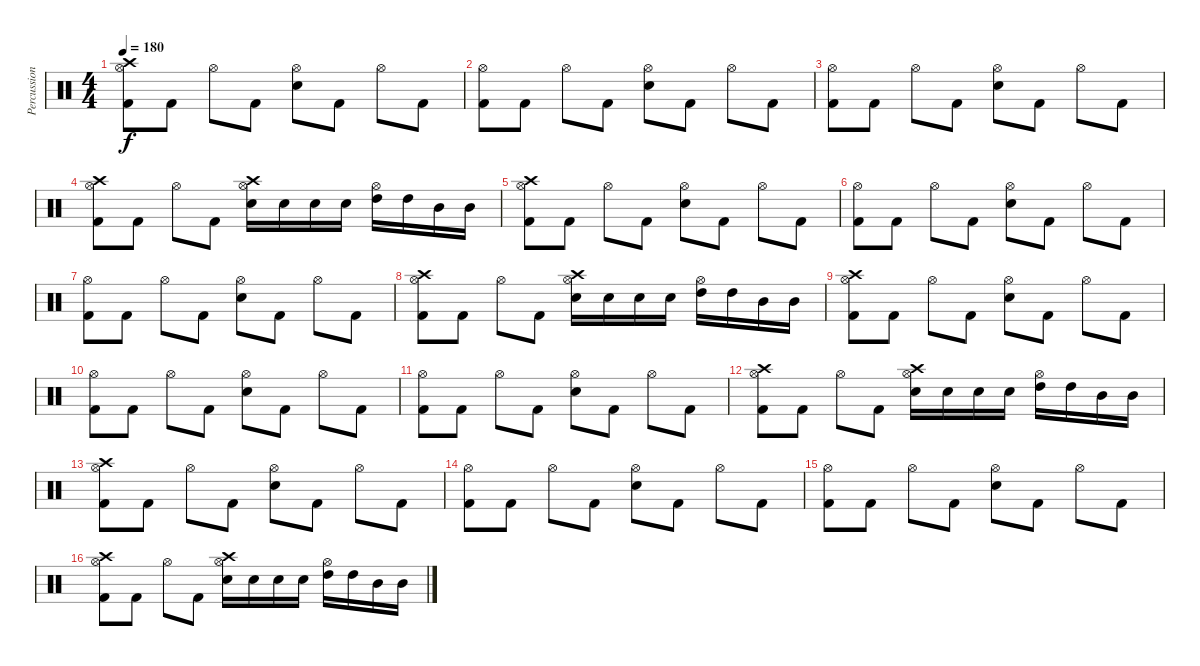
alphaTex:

\track ("Percussions" "Percussion") {instrument percussion}
\staff {score}
\articulation defaults
\ts (4 4)
\tempo 180
\clef neutral
\ks c
("Crash high (hit)" "Hi-Hat (open)" "Kick (hit) 2").8{dy f} "Kick (hit) 2".8 "Hi-Hat (open)".8 "Kick (hit) 2".8 ("Hi-Hat (open)" "Electric Snare (hit)").8 "Kick (hit) 2".8 "Hi-Hat (open)".8 "Kick (hit) 2".8 |
("Hi-Hat (open)" "Kick (hit) 2").8 "Kick (hit) 2".8 "Hi-Hat (open)".8 "Kick (hit) 2".8 ("Hi-Hat (open)" "Electric Snare (hit)").8 "Kick (hit) 2".8 "Hi-Hat (open)".8 "Kick (hit) 2".8 |
("Hi-Hat (open)" "Kick (hit) 2").8 "Kick (hit) 2".8 "Hi-Hat (open)".8 "Kick (hit) 2".8 ("Hi-Hat (open)" "Electric Snare (hit)").8 "Kick (hit) 2".8 "Hi-Hat (open)".8 "Kick (hit) 2".8 |
("Crash high (hit)" "Hi-Hat (open)" "Kick (hit) 2").8 "Kick (hit) 2".8 "Hi-Hat (open)".8 "Kick (hit) 2".8 ("Crash high (hit)" "Hi-Hat (open)" "Electric Snare (hit)").16 "Electric Snare (hit)".16 "Electric Snare (hit)".16 "Electric Snare (hit)".16 ("Hi-Hat (open)" "High Tom (hit)").16 "High Tom (hit)".16 "Mid Tom (hit)".16 "Mid Tom (hit)".16 |
("Crash high (hit)" "Hi-Hat (open)" "Kick (hit) 2").8 "Kick (hit) 2".8 "Hi-Hat (open)".8 "Kick (hit) 2".8 ("Hi-Hat (open)" "Electric Snare (hit)").8 "Kick (hit) 2".8 "Hi-Hat (open)".8 "Kick (hit) 2".8 |
("Hi-Hat (open)" "Kick (hit) 2").8 "Kick (hit) 2".8 "Hi-Hat (open)".8 "Kick (hit) 2".8 ("Hi-Hat (open)" "Electric Snare (hit)").8 "Kick (hit) 2".8 "Hi-Hat (open)".8 "Kick (hit) 2".8 |
("Hi-Hat (open)" "Kick (hit) 2").8 "Kick (hit) 2".8 "Hi-Hat (open)".8 "Kick (hit) 2".8 ("Hi-Hat (open)" "Electric Snare (hit)").8 "Kick (hit) 2".8 "Hi-Hat (open)".8 "Kick (hit) 2".8 |
("Crash high (hit)" "Hi-Hat (open)" "Kick (hit) 2").8 "Kick (hit) 2".8 "Hi-Hat (open)".8 "Kick (hit) 2".8 ("Crash high (hit)" "Hi-Hat (open)" "Electric Snare (hit)").16 "Electric Snare (hit)".16 "Electric Snare (hit)".16 "Electric Snare (hit)".16 ("Hi-Hat (open)" "High Tom (hit)").16 "High Tom (hit)".16 "Mid Tom (hit)".16 "Mid Tom (hit)".16 |
("Crash high (hit)" "Hi-Hat (open)" "Kick (hit) 2").8 "Kick (hit) 2".8 "Hi-Hat (open)".8 "Kick (hit) 2".8 ("Hi-Hat (open)" "Electric Snare (hit)").8 "Kick (hit) 2".8 "Hi-Hat (open)".8 "Kick (hit) 2".8 |
("Hi-Hat (open)" "Kick (hit) 2").8 "Kick (hit) 2".8 "Hi-Hat (open)".8 "Kick (hit) 2".8 ("Hi-Hat (open)" "Electric Snare (hit)").8 "Kick (hit) 2".8 "Hi-Hat (open)".8 "Kick (hit) 2".8 |
("Hi-Hat (open)" "Kick (hit) 2").8 "Kick (hit) 2".8 "Hi-Hat (open)".8 "Kick (hit) 2".8 ("Hi-Hat (open)" "Electric Snare (hit)").8 "Kick (hit) 2".8 "Hi-Hat (open)".8 "Kick (hit) 2".8 |
("Crash high (hit)" "Hi-Hat (open)" "Kick (hit) 2").8 "Kick (hit) 2".8 "Hi-Hat (open)".8 "Kick (hit) 2".8 ("Crash high (hit)" "Hi-Hat (open)" "Electric Snare (hit)").16 "Electric Snare (hit)".16 "Electric Snare (hit)".16 "Electric Snare (hit)".16 ("Hi-Hat (open)" "High Tom (hit)").16 "High Tom (hit)".16 "Mid Tom (hit)".16 "Mid Tom (hit)".16 |
("Crash high (hit)" "Hi-Hat (open)" "Kick (hit) 2").8 "Kick (hit) 2".8 "Hi-Hat (open)".8 "Kick (hit) 2".8 ("Hi-Hat (open)" "Electric Snare (hit)").8 "Kick (hit) 2".8 "Hi-Hat (open)".8 "Kick (hit) 2".8 |
("Hi-Hat (open)" "Kick (hit) 2").8 "Kick (hit) 2".8 "Hi-Hat (open)".8 "Kick (hit) 2".8 ("Hi-Hat (open)" "Electric Snare (hit)").8 "Kick (hit) 2".8 "Hi-Hat (open)".8 "Kick (hit) 2".8 |
("Hi-Hat (open)" "Kick (hit) 2").8 "Kick (hit) 2".8 "Hi-Hat (open)".8 "Kick (hit) 2".8 ("Hi-Hat (open)" "Electric Snare (hit)").8 "Kick (hit) 2".8 "Hi-Hat (open)".8 "Kick (hit) 2".8 |
("Crash high (hit)" "Hi-Hat (open)" "Kick (hit) 2").8 "Kick (hit) 2".8 "Hi-Hat (open)".8 "Kick (hit) 2".8 ("Crash high (hit)" "Hi-Hat (open)" "Electric Snare (hit)").16 "Electric Snare (hit)".16 "Electric Snare (hit)".16 "Electric Snare (hit)".16 ("Hi-Hat (open)" "High Tom (hit)").16 "High Tom (hit)".16 "Mid Tom (hit)".16 "Mid Tom (hit)".16
